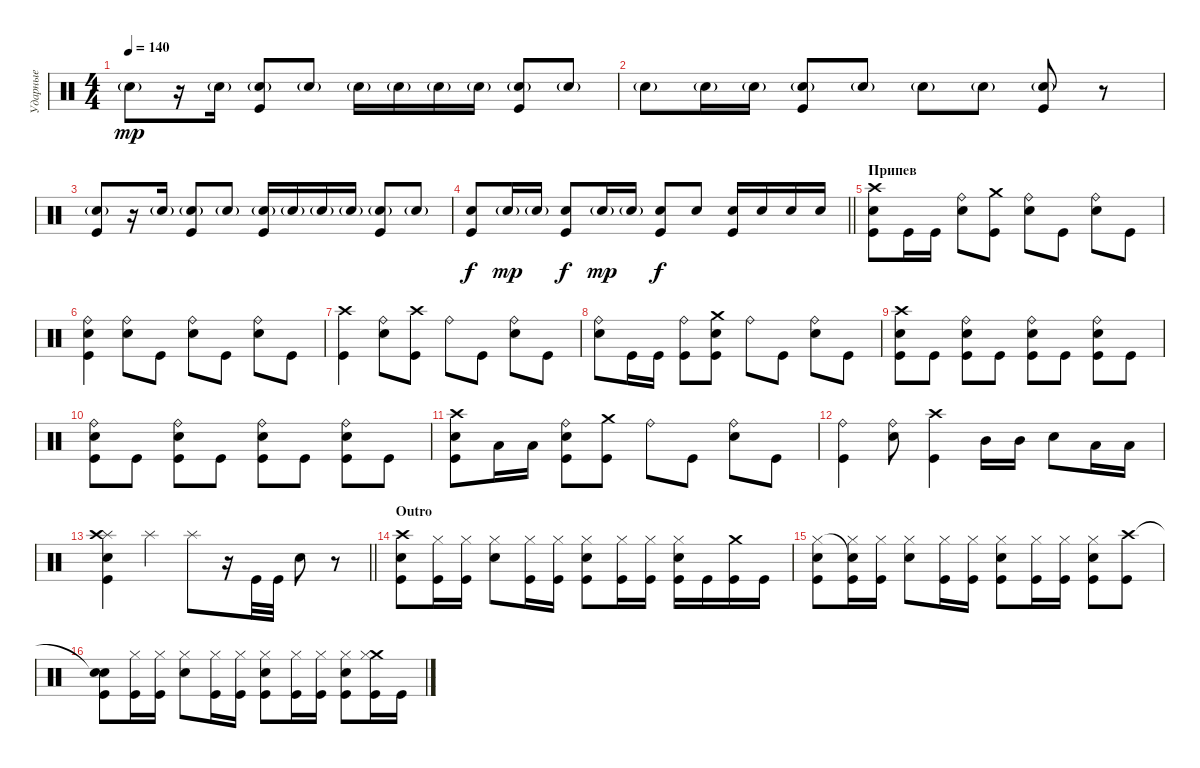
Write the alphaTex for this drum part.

\track ("Ударные" "Ударные") {instrument percussion}
\staff {score}
\articulation defaults
\ts (4 4)
\tempo 140
\clef neutral
\ks c "Electric Snare (hit)"{g}.8{dy mp}
r.16 "Electric Snare (hit)"{g}.16 ("Electric Snare (hit)"{g} "Kick (hit)").8 "Electric Snare (hit)"{g}.8 "Electric Snare (hit)"{g}.16 "Electric Snare (hit)"{g}.16 "Electric Snare (hit)"{g}.16 "Electric Snare (hit)"{g}.16 ("Electric Snare (hit)"{g} "Kick (hit)").8 "Electric Snare (hit)"{g}.8 |
"Electric Snare (hit)"{g}.8 "Electric Snare (hit)"{g}.16 "Electric Snare (hit)"{g}.16 ("Electric Snare (hit)"{g} "Kick (hit)").8 "Electric Snare (hit)"{g}.8 "Electric Snare (hit)"{g}.8 "Electric Snare (hit)"{g}.8 ("Electric Snare (hit)"{g} "Kick (hit)").8 r.8 |
("Electric Snare (hit)"{g} "Kick (hit)").8 r.16 "Electric Snare (hit)"{g}.16 ("Electric Snare (hit)"{g} "Kick (hit)").8 "Electric Snare (hit)"{g}.8 ("Electric Snare (hit)"{g} "Kick (hit)").16 "Electric Snare (hit)"{g}.16 "Electric Snare (hit)"{g}.16 "Electric Snare (hit)"{g}.16 ("Electric Snare (hit)"{g} "Kick (hit)").8 "Electric Snare (hit)"{g}.8 |
\barLineRight lightlight
("Electric Snare (hit)" "Kick (hit)").8{dy f} "Electric Snare (hit)"{g}.16{dy mp} "Electric Snare (hit)"{g}.16 ("Electric Snare (hit)" "Kick (hit)").8{dy f} "Electric Snare (hit)"{g}.16{dy mp} "Electric Snare (hit)"{g}.16 ("Electric Snare (hit)" "Kick (hit)").8{dy f} "Electric Snare (hit)".8 ("Electric Snare (hit)" "Kick (hit)").16 "Electric Snare (hit)".16 "Electric Snare (hit)".16 "Electric Snare (hit)".16 |
\section ("" "Припев")
("Crash high (hit)" "Electric Snare (hit)" "Kick (hit)").8 "Kick (hit)".16 "Kick (hit)".16 ("Ride (bell)" "Electric Snare (hit)").8 ("Crash medium (hit)" "Kick (hit)").8 ("Ride (bell)" "Electric Snare (hit)").8 "Kick (hit)".8 ("Ride (bell)" "Electric Snare (hit)").8 "Kick (hit)".8 |
("Ride (bell)" "Electric Snare (hit)" "Kick (hit)").4 ("Ride (bell)" "Electric Snare (hit)").8 "Kick (hit)".8 ("Ride (bell)" "Electric Snare (hit)").8 "Kick (hit)".8 ("Ride (bell)" "Electric Snare (hit)").8 "Kick (hit)".8 |
("Crash high (hit)" "Kick (hit)").4 ("Ride (bell)" "Electric Snare (hit)").8 ("Crash high (hit)" "Kick (hit)").8 "Ride (bell)".8 "Kick (hit)".8 ("Ride (bell)" "Electric Snare (hit)").8 "Kick (hit)".8 |
("Ride (bell)" "Electric Snare (hit)").8 "Kick (hit)".16 "Kick (hit)".16 ("Ride (bell)" "Kick (hit)").8 ("Crash medium (hit)" "Electric Snare (hit)" "Kick (hit)").8 "Ride (bell)".8 "Kick (hit)".8 ("Ride (bell)" "Electric Snare (hit)").8 "Kick (hit)".8 |
("Crash high (hit)" "Electric Snare (hit)" "Kick (hit)").8 "Kick (hit)".8 ("Ride (bell)" "Electric Snare (hit)" "Kick (hit)").8 "Kick (hit)".8 ("Ride (bell)" "Electric Snare (hit)" "Kick (hit)").8 "Kick (hit)".8 ("Ride (bell)" "Electric Snare (hit)" "Kick (hit)").8 "Kick (hit)".8 |
("Ride (bell)" "Electric Snare (hit)" "Kick (hit)").8 "Kick (hit)".8 ("Ride (bell)" "Electric Snare (hit)" "Kick (hit)").8 "Kick (hit)".8 ("Ride (bell)" "Electric Snare (hit)" "Kick (hit)").8 "Kick (hit)".8 ("Ride (bell)" "Electric Snare (hit)" "Kick (hit)").8 "Kick (hit)".8 |
("Crash high (hit)" "Electric Snare (hit)" "Kick (hit)").8 "Low Tom (hit)".16 "Low Tom (hit)".16 ("Ride (bell)" "Electric Snare (hit)" "Kick (hit)").8 ("Crash medium (hit)" "Kick (hit)").8 "Ride (bell)".8 "Kick (hit)".8 ("Ride (bell)" "Electric Snare (hit)").8 "Kick (hit)".8 |
("Ride (bell)" "Kick (hit)").4 ("Ride (bell)" "Electric Snare (hit)").8 ("Crash high (hit)" "Kick (hit)").4 "Mid Tom (hit)".16 "Mid Tom (hit)".16 "Electric Snare (hit)".8 "Low Tom (hit)".16 "Low Tom (hit)".16 |
\barLineRight lightlight
("Splash (hit)" "Electric Snare (hit)" "Kick (hit)" "Crash high (hit)").4 "Splash (hit)".4 "Splash (hit)".8 r.16 "Kick (hit)".32 "Kick (hit)".32 "Electric Snare (hit)".8 r.8 |
\section ("" "Outro")
("Crash high (hit)" "Electric Snare (hit)" "Kick (hit)").8 ("Hi-Hat (closed)" "Kick (hit)").16 ("Hi-Hat (closed)" "Kick (hit)").16 ("Hi-Hat (closed)" "Electric Snare (hit)").8 ("Hi-Hat (closed)" "Kick (hit)").16 ("Hi-Hat (closed)" "Kick (hit)").16 ("Hi-Hat (closed)" "Electric Snare (hit)" "Kick (hit)").8 ("Hi-Hat (closed)" "Kick (hit)").16 ("Hi-Hat (closed)" "Kick (hit)").16 ("Hi-Hat (closed)" "Electric Snare (hit)" "Kick (hit)").16 "Kick (hit)".16 ("Crash medium (hit)" "Kick (hit)").16 "Kick (hit)".16 |
("Hi-Hat (closed)" "Electric Snare (hit)" "Kick (hit)").8 ("Snare (hit)"{t} "Hi-Hat (closed)" "Kick (hit)").16 ("Hi-Hat (closed)" "Kick (hit)").16 ("Hi-Hat (closed)" "Electric Snare (hit)").8 ("Hi-Hat (closed)" "Kick (hit)").16 ("Hi-Hat (closed)" "Kick (hit)").16 ("Hi-Hat (closed)" "Electric Snare (hit)" "Kick (hit)").8 ("Hi-Hat (closed)" "Kick (hit)").16 ("Hi-Hat (closed)" "Kick (hit)").16 ("Hi-Hat (closed)" "Electric Snare (hit)" "Kick (hit)").8 ("Crash high (hit)" "Kick (hit)").8 |
("Snare (hit)"{t} "Electric Snare (hit)" "Kick (hit)").8 ("Hi-Hat (closed)" "Kick (hit)").16 ("Hi-Hat (closed)" "Kick (hit)").16 ("Hi-Hat (closed)" "Electric Snare (hit)").8 ("Hi-Hat (closed)" "Kick (hit)").16 ("Hi-Hat (closed)" "Kick (hit)").16 ("Hi-Hat (closed)" "Electric Snare (hit)" "Kick (hit)").8 ("Hi-Hat (closed)" "Kick (hit)").16 ("Hi-Hat (closed)" "Kick (hit)").16 ("Hi-Hat (closed)" "Electric Snare (hit)" "Kick (hit)").8 ("Crash medium (hit)" "Hi-Hat (closed)" "Kick (hit)").16 "Kick (hit)".16
